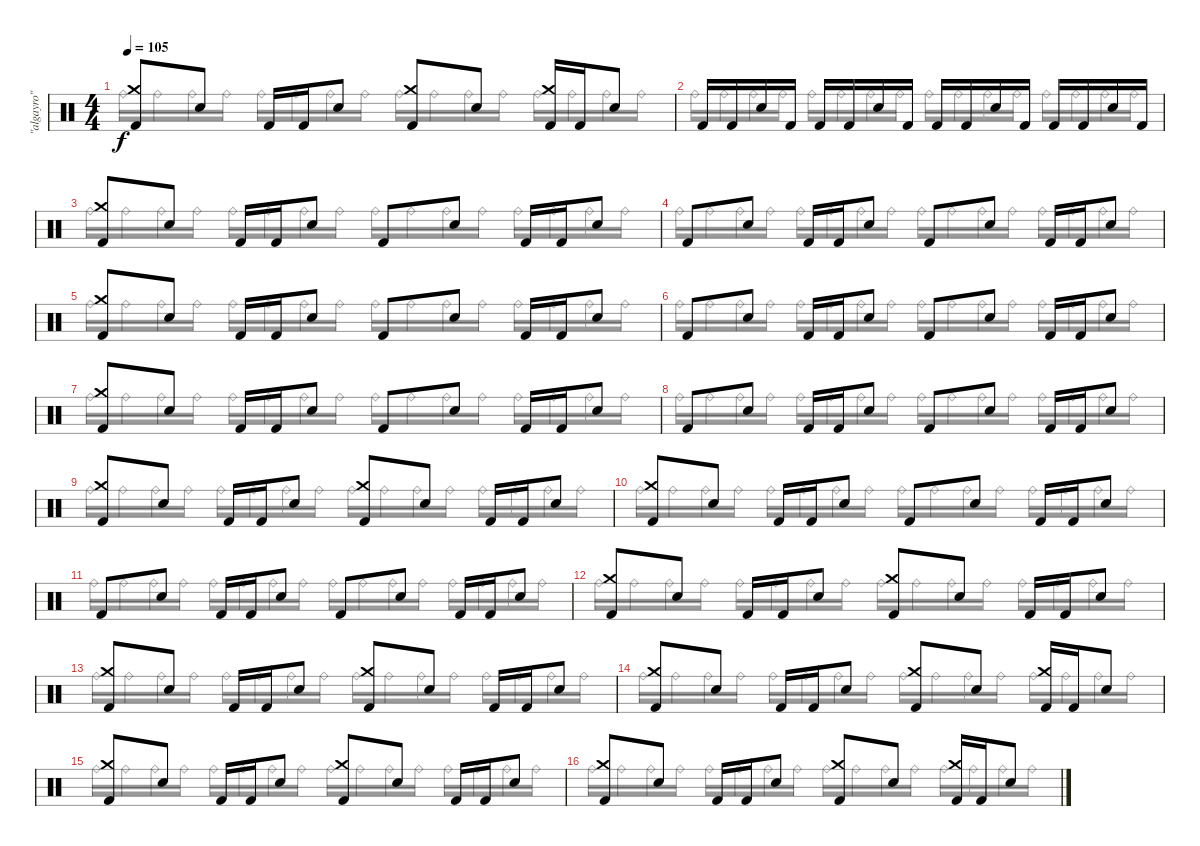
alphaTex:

\track ("\"algayro\"" "\"algayro\"") {instrument percussion}
\staff {score}
\articulation defaults
\voice
\ts (4 4)
\tempo 105
\clef neutral
\ks c
("Crash medium (hit)" "Kick (hit) 2").8{dy f} "Electric Snare (hit)".8 "Kick (hit) 2".16 "Kick (hit) 2".16 "Electric Snare (hit)".8 ("Crash medium (hit)" "Kick (hit) 2").8 "Electric Snare (hit)".8 ("Crash medium (hit)" "Kick (hit) 2").16 "Kick (hit) 2".16 "Electric Snare (hit)".8 |
"Kick (hit) 2".16 "Kick (hit) 2".16 "Electric Snare (hit)".16 "Kick (hit) 2".16 "Kick (hit) 2".16 "Kick (hit) 2".16 "Electric Snare (hit)".16 "Kick (hit) 2".16 "Kick (hit) 2".16 "Kick (hit) 2".16 "Electric Snare (hit)".16 "Kick (hit) 2".16 "Kick (hit) 2".16 "Kick (hit) 2".16 "Electric Snare (hit)".16 "Kick (hit) 2".16 |
("Crash medium (hit)" "Kick (hit) 2").8 "Electric Snare (hit)".8 "Kick (hit) 2".16 "Kick (hit) 2".16 "Electric Snare (hit)".8 "Kick (hit) 2".8 "Electric Snare (hit)".8 "Kick (hit) 2".16 "Kick (hit) 2".16 "Electric Snare (hit)".8 |
"Kick (hit) 2".8 "Electric Snare (hit)".8 "Kick (hit) 2".16 "Kick (hit) 2".16 "Electric Snare (hit)".8 "Kick (hit) 2".8 "Electric Snare (hit)".8 "Kick (hit) 2".16 "Kick (hit) 2".16 "Electric Snare (hit)".8 |
("Crash medium (hit)" "Kick (hit) 2").8 "Electric Snare (hit)".8 "Kick (hit) 2".16 "Kick (hit) 2".16 "Electric Snare (hit)".8 "Kick (hit) 2".8 "Electric Snare (hit)".8 "Kick (hit) 2".16 "Kick (hit) 2".16 "Electric Snare (hit)".8 |
"Kick (hit) 2".8 "Electric Snare (hit)".8 "Kick (hit) 2".16 "Kick (hit) 2".16 "Electric Snare (hit)".8 "Kick (hit) 2".8 "Electric Snare (hit)".8 "Kick (hit) 2".16 "Kick (hit) 2".16 "Electric Snare (hit)".8 |
("Crash medium (hit)" "Kick (hit) 2").8 "Electric Snare (hit)".8 "Kick (hit) 2".16 "Kick (hit) 2".16 "Electric Snare (hit)".8 "Kick (hit) 2".8 "Electric Snare (hit)".8 "Kick (hit) 2".16 "Kick (hit) 2".16 "Electric Snare (hit)".8 |
"Kick (hit) 2".8 "Electric Snare (hit)".8 "Kick (hit) 2".16 "Kick (hit) 2".16 "Electric Snare (hit)".8 "Kick (hit) 2".8 "Electric Snare (hit)".8 "Kick (hit) 2".16 "Kick (hit) 2".16 "Electric Snare (hit)".8 |
("Crash medium (hit)" "Kick (hit) 2").8 "Electric Snare (hit)".8 "Kick (hit) 2".16 "Kick (hit) 2".16 "Electric Snare (hit)".8 ("Crash medium (hit)" "Kick (hit) 2").8 "Electric Snare (hit)".8 "Kick (hit) 2".16 "Kick (hit) 2".16 "Electric Snare (hit)".8 |
("Crash medium (hit)" "Kick (hit) 2").8 "Electric Snare (hit)".8 "Kick (hit) 2".16 "Kick (hit) 2".16 "Electric Snare (hit)".8 "Kick (hit) 2".8 "Electric Snare (hit)".8 "Kick (hit) 2".16 "Kick (hit) 2".16 "Electric Snare (hit)".8 |
"Kick (hit) 2".8 "Electric Snare (hit)".8 "Kick (hit) 2".16 "Kick (hit) 2".16 "Electric Snare (hit)".8 "Kick (hit) 2".8 "Electric Snare (hit)".8 "Kick (hit) 2".16 "Kick (hit) 2".16 "Electric Snare (hit)".8 |
("Crash medium (hit)" "Kick (hit) 2").8 "Electric Snare (hit)".8 "Kick (hit) 2".16 "Kick (hit) 2".16 "Electric Snare (hit)".8 ("Crash medium (hit)" "Kick (hit) 2").8 "Electric Snare (hit)".8 "Kick (hit) 2".16 "Kick (hit) 2".16 "Electric Snare (hit)".8 |
("Crash medium (hit)" "Kick (hit) 2").8 "Electric Snare (hit)".8 "Kick (hit) 2".16 "Kick (hit) 2".16 "Electric Snare (hit)".8 ("Crash medium (hit)" "Kick (hit) 2").8 "Electric Snare (hit)".8 "Kick (hit) 2".16 "Kick (hit) 2".16 "Electric Snare (hit)".8 |
("Crash medium (hit)" "Kick (hit) 2").8 "Electric Snare (hit)".8 "Kick (hit) 2".16 "Kick (hit) 2".16 "Electric Snare (hit)".8 ("Crash medium (hit)" "Kick (hit) 2").8 "Electric Snare (hit)".8 ("Crash medium (hit)" "Kick (hit) 2").16 "Kick (hit) 2".16 "Electric Snare (hit)".8 |
("Crash medium (hit)" "Kick (hit) 2").8 "Electric Snare (hit)".8 "Kick (hit) 2".16 "Kick (hit) 2".16 "Electric Snare (hit)".8 ("Crash medium (hit)" "Kick (hit) 2").8 "Electric Snare (hit)".8 "Kick (hit) 2".16 "Kick (hit) 2".16 "Electric Snare (hit)".8 |
("Crash medium (hit)" "Kick (hit) 2").8 "Electric Snare (hit)".8 "Kick (hit) 2".16 "Kick (hit) 2".16 "Electric Snare (hit)".8 ("Crash medium (hit)" "Kick (hit) 2").8 "Electric Snare (hit)".8 ("Crash medium (hit)" "Kick (hit) 2").16 "Kick (hit) 2".16 "Electric Snare (hit)".8
\voice
\clef neutral
\ottava regular
\simile none
\ks c "Ride (bell)".16{dy f} "Ride (bell)".16 "Ride (bell)".16 "Ride (bell)".16 "Ride (bell)".16 "Ride (bell)".16 "Ride (bell)".16 "Ride (bell)".16 "Ride (bell)".16 "Ride (bell)".16 "Ride (bell)".16 "Ride (bell)".16 "Ride (bell)".16 "Ride (bell)".16 "Ride (bell)".16 "Ride (bell)".16
|
"Ride (bell)".16 "Ride (bell)".16 "Ride (bell)".16 "Ride (bell)".16 "Ride (bell)".16 "Ride (bell)".16 "Ride (bell)".16 "Ride (bell)".16 "Ride (bell)".16 "Ride (bell)".16 "Ride (bell)".16 "Ride (bell)".16 "Ride (bell)".16 "Ride (bell)".16 "Ride (bell)".16 "Ride (bell)".16 |
"Ride (bell)".16 "Ride (bell)".16 "Ride (bell)".16 "Ride (bell)".16 "Ride (bell)".16 "Ride (bell)".16 "Ride (bell)".16 "Ride (bell)".16 "Ride (bell)".16 "Ride (bell)".16 "Ride (bell)".16 "Ride (bell)".16 "Ride (bell)".16 "Ride (bell)".16 "Ride (bell)".16 "Ride (bell)".16 |
"Ride (bell)".16 "Ride (bell)".16 "Ride (bell)".16 "Ride (bell)".16 "Ride (bell)".16 "Ride (bell)".16 "Ride (bell)".16 "Ride (bell)".16 "Ride (bell)".16 "Ride (bell)".16 "Ride (bell)".16 "Ride (bell)".16 "Ride (bell)".16 "Ride (bell)".16 "Ride (bell)".16 "Ride (bell)".16 |
"Ride (bell)".16 "Ride (bell)".16 "Ride (bell)".16 "Ride (bell)".16 "Ride (bell)".16 "Ride (bell)".16 "Ride (bell)".16 "Ride (bell)".16 "Ride (bell)".16 "Ride (bell)".16 "Ride (bell)".16 "Ride (bell)".16 "Ride (bell)".16 "Ride (bell)".16 "Ride (bell)".16 "Ride (bell)".16 |
"Ride (bell)".16 "Ride (bell)".16 "Ride (bell)".16 "Ride (bell)".16 "Ride (bell)".16 "Ride (bell)".16 "Ride (bell)".16 "Ride (bell)".16 "Ride (bell)".16 "Ride (bell)".16 "Ride (bell)".16 "Ride (bell)".16 "Ride (bell)".16 "Ride (bell)".16 "Ride (bell)".16 "Ride (bell)".16 |
"Ride (bell)".16 "Ride (bell)".16 "Ride (bell)".16 "Ride (bell)".16 "Ride (bell)".16 "Ride (bell)".16 "Ride (bell)".16 "Ride (bell)".16 "Ride (bell)".16 "Ride (bell)".16 "Ride (bell)".16 "Ride (bell)".16 "Ride (bell)".16 "Ride (bell)".16 "Ride (bell)".16 "Ride (bell)".16 |
"Ride (bell)".16 "Ride (bell)".16 "Ride (bell)".16 "Ride (bell)".16 "Ride (bell)".16 "Ride (bell)".16 "Ride (bell)".16 "Ride (bell)".16 "Ride (bell)".16 "Ride (bell)".16 "Ride (bell)".16 "Ride (bell)".16 "Ride (bell)".16 "Ride (bell)".16 "Ride (bell)".16 "Ride (bell)".16 |
"Ride (bell)".16 "Ride (bell)".16 "Ride (bell)".16 "Ride (bell)".16 "Ride (bell)".16 "Ride (bell)".16 "Ride (bell)".16 "Ride (bell)".16 "Ride (bell)".16 "Ride (bell)".16 "Ride (bell)".16 "Ride (bell)".16 "Ride (bell)".16 "Ride (bell)".16 "Ride (bell)".16 "Ride (bell)".16 |
"Ride (bell)".16 "Ride (bell)".16 "Ride (bell)".16 "Ride (bell)".16 "Ride (bell)".16 "Ride (bell)".16 "Ride (bell)".16 "Ride (bell)".16 "Ride (bell)".16 "Ride (bell)".16 "Ride (bell)".16 "Ride (bell)".16 "Ride (bell)".16 "Ride (bell)".16 "Ride (bell)".16 "Ride (bell)".16 |
"Ride (bell)".16 "Ride (bell)".16 "Ride (bell)".16 "Ride (bell)".16 "Ride (bell)".16 "Ride (bell)".16 "Ride (bell)".16 "Ride (bell)".16 "Ride (bell)".16 "Ride (bell)".16 "Ride (bell)".16 "Ride (bell)".16 "Ride (bell)".16 "Ride (bell)".16 "Ride (bell)".16 "Ride (bell)".16 |
"Ride (bell)".16 "Ride (bell)".16 "Ride (bell)".16 "Ride (bell)".16 "Ride (bell)".16 "Ride (bell)".16 "Ride (bell)".16 "Ride (bell)".16 "Ride (bell)".16 "Ride (bell)".16 "Ride (bell)".16 "Ride (bell)".16 "Ride (bell)".16 "Ride (bell)".16 "Ride (bell)".16 "Ride (bell)".16 |
"Ride (bell)".16 "Ride (bell)".16 "Ride (bell)".16 "Ride (bell)".16 "Ride (bell)".16 "Ride (bell)".16 "Ride (bell)".16 "Ride (bell)".16 "Ride (bell)".16 "Ride (bell)".16 "Ride (bell)".16 "Ride (bell)".16 "Ride (bell)".16 "Ride (bell)".16 "Ride (bell)".16 "Ride (bell)".16 |
"Ride (bell)".16 "Ride (bell)".16 "Ride (bell)".16 "Ride (bell)".16 "Ride (bell)".16 "Ride (bell)".16 "Ride (bell)".16 "Ride (bell)".16 "Ride (bell)".16 "Ride (bell)".16 "Ride (bell)".16 "Ride (bell)".16 "Ride (bell)".16 "Ride (bell)".16 "Ride (bell)".16 "Ride (bell)".16 |
"Ride (bell)".16 "Ride (bell)".16 "Ride (bell)".16 "Ride (bell)".16 "Ride (bell)".16 "Ride (bell)".16 "Ride (bell)".16 "Ride (bell)".16 "Ride (bell)".16 "Ride (bell)".16 "Ride (bell)".16 "Ride (bell)".16 "Ride (bell)".16 "Ride (bell)".16 "Ride (bell)".16 "Ride (bell)".16 |
"Ride (bell)".16 "Ride (bell)".16 "Ride (bell)".16 "Ride (bell)".16 "Ride (bell)".16 "Ride (bell)".16 "Ride (bell)".16 "Ride (bell)".16 "Ride (bell)".16 "Ride (bell)".16 "Ride (bell)".16 "Ride (bell)".16 "Ride (bell)".16 "Ride (bell)".16 "Ride (bell)".16 "Ride (bell)".16
